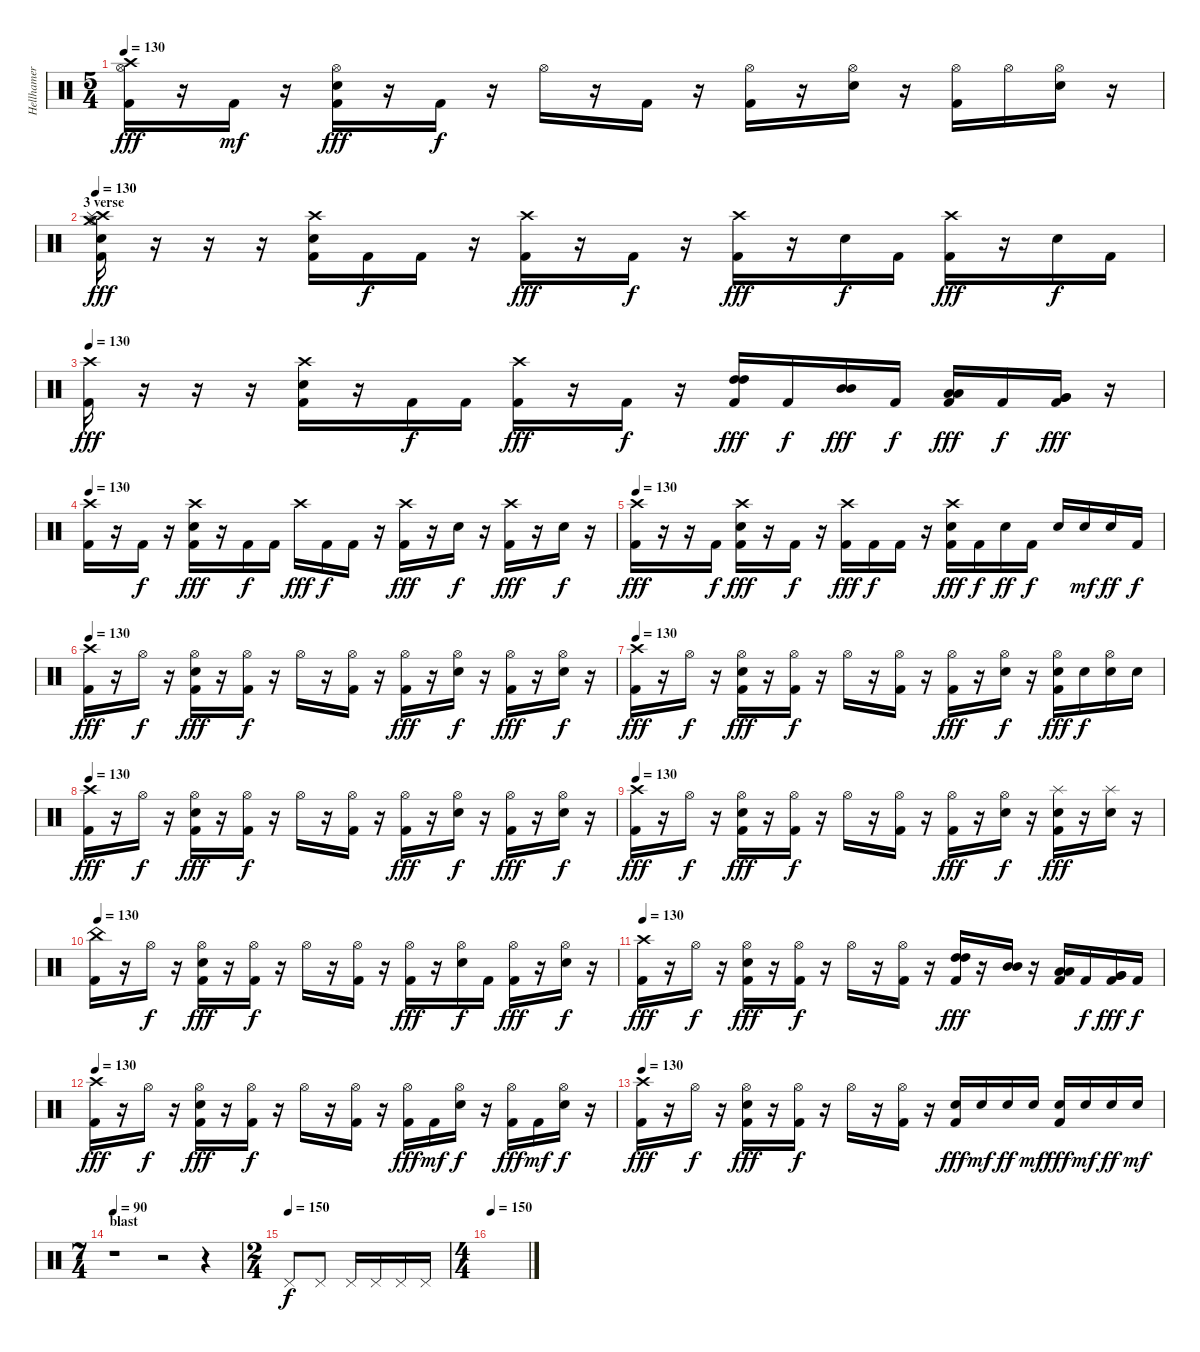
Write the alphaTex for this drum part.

\track ("Hellhamer" "Hellhamer") {instrument percussion}
\staff {score}
\articulation defaults
\ts (5 4)
\tempo 130
\clef neutral
\ks c
("Crash high (hit)" "Hi-Hat (open)" "Kick (hit) 2").16{dy fff} r.16 "Kick (hit) 2".16{dy mf} r.16 ("Hi-Hat (open)" "Electric Snare (hit)" "Kick (hit) 2").16{dy fff} r.16 "Kick (hit) 2".16{dy f} r.16 "Hi-Hat (open)".16 r.16 "Kick (hit) 2".16 r.16 ("Hi-Hat (open)" "Kick (hit) 2").16 r.16 ("Hi-Hat (open)" "Electric Snare (hit)").16 r.16 ("Hi-Hat (open)" "Kick (hit) 2").16 "Hi-Hat (open)".16 ("Hi-Hat (open)" "Electric Snare (hit)").16 r.16 |
\section ("" "3 verse")
\tempo 130
("Crash high (hit)" "Crash medium (hit)" "Splash (hit)" "Electric Snare (hit)" "Hi-Hat (open)" "Kick (hit) 2").16{dy fff} r.16 r.16 r.16 ("Crash high (hit)" "Electric Snare (hit)" "Kick (hit) 2").16 "Kick (hit) 2".16{dy f} "Kick (hit) 2".16 r.16 ("Crash high (hit)" "Kick (hit) 2").16{dy fff} r.16 "Kick (hit) 2".16{dy f} r.16 ("Crash high (hit)" "Kick (hit) 2").16{dy fff} r.16 "Electric Snare (hit)".16{dy f} "Kick (hit) 2".16 ("Crash high (hit)" "Kick (hit) 2").16{dy fff} r.16 "Electric Snare (hit)".16{dy f} "Kick (hit) 2".16 |
\tempo 130
("Crash high (hit)" "Kick (hit) 2").16{dy fff} r.16 r.16 r.16 ("Crash high (hit)" "Electric Snare (hit)" "Kick (hit) 2").16 r.16 "Kick (hit) 2".16{dy f} "Kick (hit) 2".16 ("Crash high (hit)" "Kick (hit) 2").16{dy fff} r.16 "Kick (hit) 2".16{dy f} r.16 ("High Tom (hit)" "High Tom (hit)" "Kick (hit) 2").16{dy fff} "Kick (hit) 2".16{dy f} ("Mid Tom (hit)" "Mid Tom (hit)").16{dy fff} "Kick (hit) 2".16{dy f} ("Low Tom (hit)" "Low Tom (hit)" "Kick (hit) 2").16{dy fff} "Kick (hit) 2".16{dy f} ("Very Low Tom (hit)" "Very Low Tom (hit)" "Kick (hit) 2").16{dy fff} r.16 |
\tempo 130
("Crash high (hit)" "Kick (hit) 2").16 r.16 "Kick (hit) 2".16{dy f} r.16 ("Crash high (hit)" "Electric Snare (hit)" "Kick (hit) 2").16{dy fff} r.16 "Kick (hit) 2".16{dy f} "Kick (hit) 2".16 "Crash high (hit)".16{dy fff} "Kick (hit) 2".16{dy f} "Kick (hit) 2".16 r.16 ("Crash high (hit)" "Kick (hit) 2").16{dy fff} r.16 "Electric Snare (hit)".16{dy f} r.16 ("Crash high (hit)" "Kick (hit) 2").16{dy fff} r.16 "Electric Snare (hit)".16{dy f} r.16 |
\tempo 130
("Crash high (hit)" "Kick (hit) 2").16{dy fff} r.16 r.16 "Kick (hit) 2".16{dy f} ("Crash high (hit)" "Electric Snare (hit)" "Kick (hit) 2").16{dy fff} r.16 "Kick (hit) 2".16{dy f} r.16 ("Crash high (hit)" "Kick (hit) 2").16{dy fff} "Kick (hit) 2".16{dy f} "Kick (hit) 2".16 r.16 ("Crash high (hit)" "Electric Snare (hit)" "Kick (hit) 2").16{dy fff} "Kick (hit) 2".16{dy f} "Electric Snare (hit)".16{dy ff} "Kick (hit) 2".16{dy f} "Electric Snare (hit)".16 "Electric Snare (hit)".16{dy mf} "Electric Snare (hit)".16{dy ff} "Kick (hit) 2".16{dy f} |
\tempo 130
("Crash high (hit)" "Kick (hit) 2").16{dy fff} r.16 "Hi-Hat (open)".16{dy f} r.16 ("Hi-Hat (open)" "Electric Snare (hit)" "Kick (hit) 2").16{dy fff} r.16 ("Hi-Hat (open)" "Kick (hit) 2").16{dy f} r.16 "Hi-Hat (open)".16 r.16 ("Hi-Hat (open)" "Kick (hit) 2").16 r.16 ("Hi-Hat (open)" "Kick (hit) 2").16{dy fff} r.16 ("Hi-Hat (open)" "Electric Snare (hit)").16{dy f} r.16 ("Hi-Hat (open)" "Kick (hit) 2").16{dy fff} r.16 ("Hi-Hat (open)" "Electric Snare (hit)").16{dy f} r.16 |
\tempo 130
("Crash high (hit)" "Kick (hit) 2").16{dy fff} r.16 "Hi-Hat (open)".16{dy f} r.16 ("Hi-Hat (open)" "Electric Snare (hit)" "Kick (hit) 2").16{dy fff} r.16 ("Hi-Hat (open)" "Kick (hit) 2").16{dy f} r.16 "Hi-Hat (open)".16 r.16 ("Hi-Hat (open)" "Kick (hit) 2").16 r.16 ("Hi-Hat (open)" "Kick (hit) 2").16{dy fff} r.16 ("Hi-Hat (open)" "Electric Snare (hit)").16{dy f} r.16 ("Hi-Hat (open)" "Electric Snare (hit)" "Kick (hit) 2").16{dy fff} "Electric Snare (hit)".16{dy f} ("Hi-Hat (open)" "Electric Snare (hit)").16 "Electric Snare (hit)".16 |
\tempo 130
("Crash high (hit)" "Kick (hit) 2").16{dy fff} r.16 "Hi-Hat (open)".16{dy f} r.16 ("Hi-Hat (open)" "Electric Snare (hit)" "Kick (hit) 2").16{dy fff} r.16 ("Hi-Hat (open)" "Kick (hit) 2").16{dy f} r.16 "Hi-Hat (open)".16 r.16 ("Hi-Hat (open)" "Kick (hit) 2").16 r.16 ("Hi-Hat (open)" "Kick (hit) 2").16{dy fff} r.16 ("Hi-Hat (open)" "Electric Snare (hit)").16{dy f} r.16 ("Hi-Hat (open)" "Kick (hit) 2").16{dy fff} r.16 ("Hi-Hat (open)" "Electric Snare (hit)").16{dy f} r.16 |
\tempo 130
("Crash high (hit)" "Kick (hit) 2").16{dy fff} r.16 "Hi-Hat (open)".16{dy f} r.16 ("Hi-Hat (open)" "Electric Snare (hit)" "Kick (hit) 2").16{dy fff} r.16 ("Hi-Hat (open)" "Kick (hit) 2").16{dy f} r.16 "Hi-Hat (open)".16 r.16 ("Hi-Hat (open)" "Kick (hit) 2").16 r.16 ("Hi-Hat (open)" "Kick (hit) 2").16{dy fff} r.16 ("Hi-Hat (open)" "Electric Snare (hit)").16{dy f} r.16 ("Splash (hit)" "Electric Snare (hit)" "Kick (hit) 2").16{dy fff} r.16 ("Splash (hit)" "Electric Snare (hit)").16 r.16 |
\tempo 130
("China (hit)" "Kick (hit) 2").16 r.16 "Hi-Hat (open)".16{dy f} r.16 ("Hi-Hat (open)" "Electric Snare (hit)" "Kick (hit) 2").16{dy fff} r.16 ("Hi-Hat (open)" "Kick (hit) 2").16{dy f} r.16 "Hi-Hat (open)".16 r.16 ("Hi-Hat (open)" "Kick (hit) 2").16 r.16 ("Hi-Hat (open)" "Kick (hit) 2").16{dy fff} r.16 ("Hi-Hat (open)" "Electric Snare (hit)").16{dy f} "Kick (hit) 2".16 ("Hi-Hat (open)" "Kick (hit) 2").16{dy fff} r.16 ("Hi-Hat (open)" "Electric Snare (hit)").16{dy f} r.16 |
\tempo 130
("Crash high (hit)" "Kick (hit) 2").16{dy fff} r.16 "Hi-Hat (open)".16{dy f} r.16 ("Hi-Hat (open)" "Electric Snare (hit)" "Kick (hit) 2").16{dy fff} r.16 ("Hi-Hat (open)" "Kick (hit) 2").16{dy f} r.16 "Hi-Hat (open)".16 r.16 ("Hi-Hat (open)" "Kick (hit) 2").16 r.16 ("High Tom (hit)" "High Tom (hit)" "Kick (hit) 2").16{dy fff} r.16 ("Mid Tom (hit)" "Mid Tom (hit)").16 r.16 ("Low Tom (hit)" "Low Tom (hit)" "Kick (hit) 2").16 "Kick (hit) 2".16{dy f} ("Very Low Tom (hit)" "Very Low Tom (hit)" "Kick (hit) 2").16{dy fff} "Kick (hit) 2".16{dy f} |
\tempo 130
("Crash high (hit)" "Kick (hit) 2").16{dy fff} r.16 "Hi-Hat (open)".16{dy f} r.16 ("Hi-Hat (open)" "Electric Snare (hit)" "Kick (hit) 2").16{dy fff} r.16 ("Hi-Hat (open)" "Kick (hit) 2").16{dy f} r.16 "Hi-Hat (open)".16 r.16 ("Hi-Hat (open)" "Kick (hit) 2").16 r.16 ("Hi-Hat (open)" "Kick (hit) 2").16{dy fff} "Kick (hit) 2".16{dy mf} ("Hi-Hat (open)" "Electric Snare (hit)").16{dy f} r.16 ("Hi-Hat (open)" "Kick (hit) 2").16{dy fff} "Kick (hit) 2".16{dy mf} ("Hi-Hat (open)" "Electric Snare (hit)").16{dy f} r.16 |
\tempo 130
("Crash high (hit)" "Kick (hit) 2").16{dy fff} r.16 "Hi-Hat (open)".16{dy f} r.16 ("Hi-Hat (open)" "Electric Snare (hit)" "Kick (hit) 2").16{dy fff} r.16 ("Hi-Hat (open)" "Kick (hit) 2").16{dy f} r.16 "Hi-Hat (open)".16 r.16 ("Hi-Hat (open)" "Kick (hit) 2").16 r.16 ("Electric Snare (hit)" "Kick (hit) 2").16{dy fff} "Electric Snare (hit)".16{dy mf} "Electric Snare (hit)".16{dy ff} "Electric Snare (hit)".16{dy mf} ("Electric Snare (hit)" "Kick (hit) 2").16{dy fff} "Electric Snare (hit)".16{dy mf} "Electric Snare (hit)".16{dy ff} "Electric Snare (hit)".16{dy mf} |
\ts (7 4)
\section ("" "blast")
\tempo 90
r.1 r.2 r.4 |
\ts (2 4)
\tempo (150)
"Pedal Hi-Hat (hit)".8{dy f} "Pedal Hi-Hat (hit)".8 "Pedal Hi-Hat (hit)".16 "Pedal Hi-Hat (hit)".16 "Pedal Hi-Hat (hit)".16 "Pedal Hi-Hat (hit)".16 |
\ts (4 4)
\tempo 150
